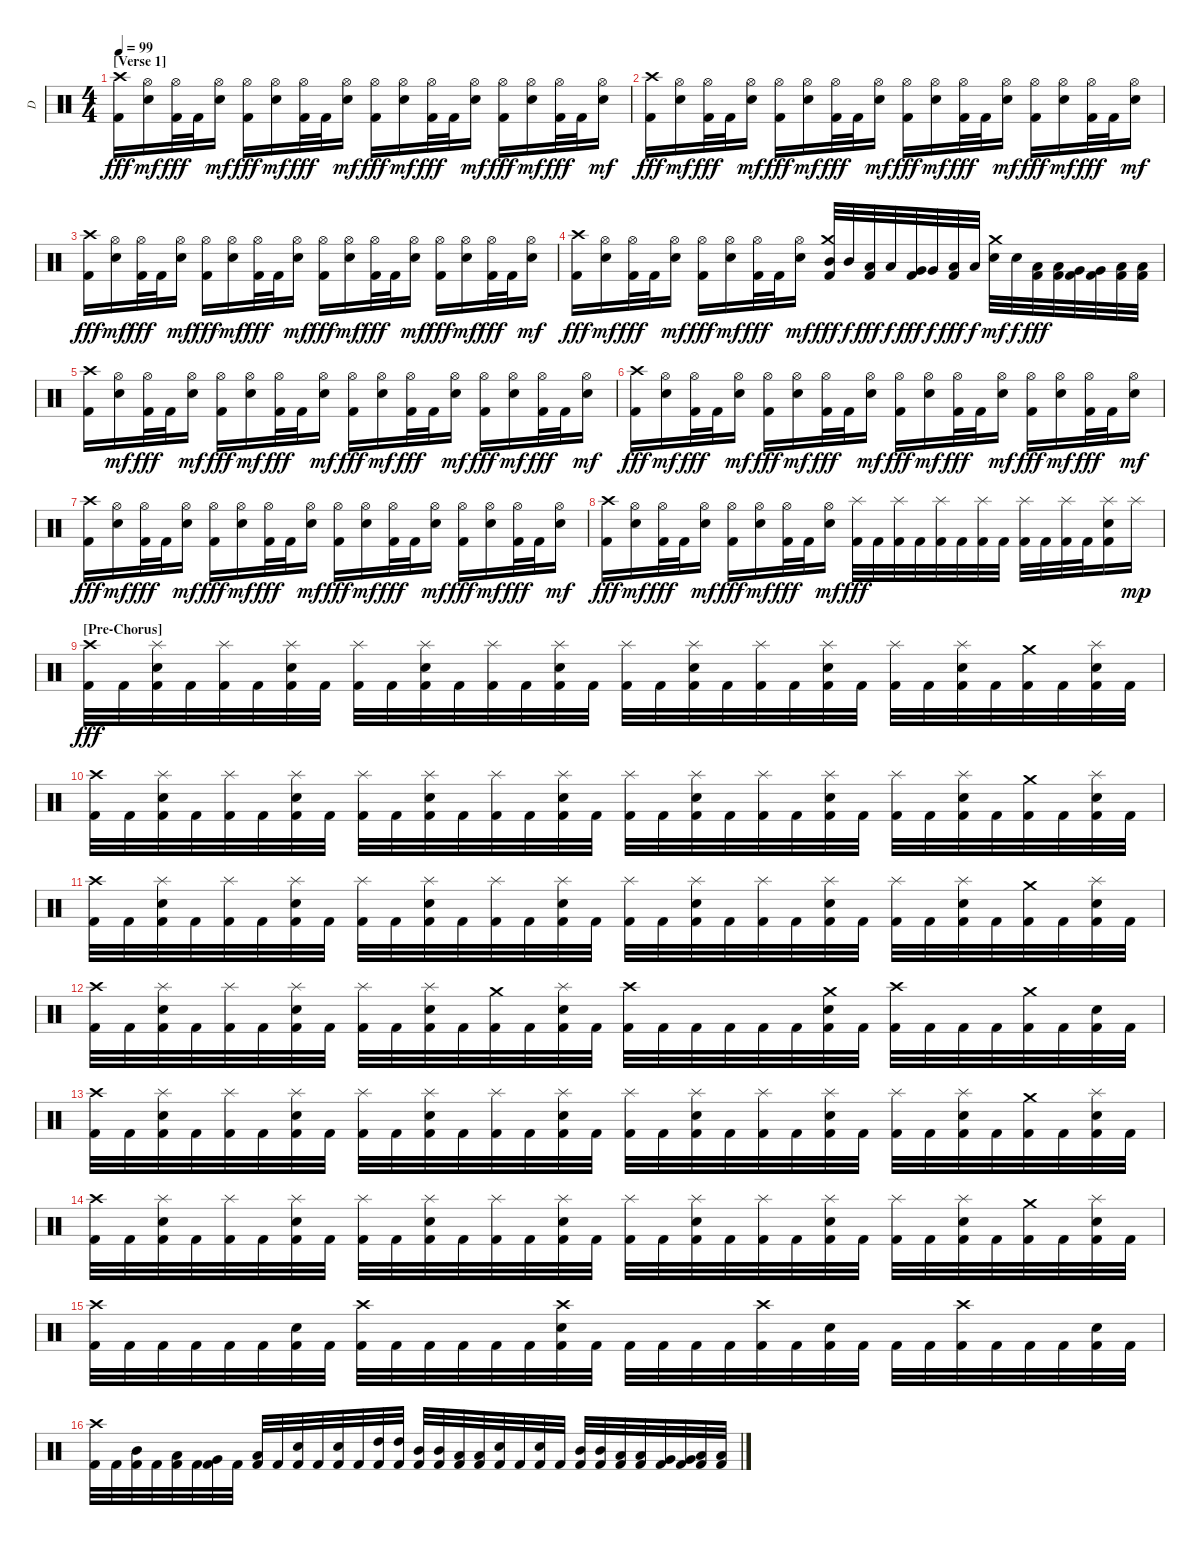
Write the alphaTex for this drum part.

\track ("D" "D") {instrument percussion}
\staff {score}
\articulation defaults
\ts (4 4)
\section ("" "[Verse 1]")
\tempo 99
\clef neutral
\ks c
("Crash high (hit)" "Kick (hit) 2").16{dy fff} ("Hi-Hat (open)" "Snare (hit) 2").16{dy mf} ("Hi-Hat (open)" "Kick (hit) 2").32{dy fff} "Kick (hit) 2".32 ("Hi-Hat (open)" "Snare (hit) 2").16{dy mf} ("Hi-Hat (open)" "Kick (hit) 2").16{dy fff} ("Hi-Hat (open)" "Snare (hit) 2").16{dy mf} ("Hi-Hat (open)" "Kick (hit) 2").32{dy fff} "Kick (hit) 2".32 ("Hi-Hat (open)" "Snare (hit) 2").16{dy mf} ("Hi-Hat (open)" "Kick (hit) 2").16{dy fff} ("Hi-Hat (open)" "Snare (hit) 2").16{dy mf} ("Hi-Hat (open)" "Kick (hit) 2").32{dy fff} "Kick (hit) 2".32 ("Hi-Hat (open)" "Snare (hit) 2").16{dy mf} ("Hi-Hat (open)" "Kick (hit) 2").16{dy fff} ("Hi-Hat (open)" "Snare (hit) 2").16{dy mf} ("Hi-Hat (open)" "Kick (hit) 2").32{dy fff} "Kick (hit) 2".32 ("Hi-Hat (open)" "Snare (hit) 2").16{dy mf} |
("Crash high (hit)" "Kick (hit) 2").16{dy fff} ("Hi-Hat (open)" "Snare (hit) 2").16{dy mf} ("Hi-Hat (open)" "Kick (hit) 2").32{dy fff} "Kick (hit) 2".32 ("Hi-Hat (open)" "Snare (hit) 2").16{dy mf} ("Hi-Hat (open)" "Kick (hit) 2").16{dy fff} ("Hi-Hat (open)" "Snare (hit) 2").16{dy mf} ("Hi-Hat (open)" "Kick (hit) 2").32{dy fff} "Kick (hit) 2".32 ("Hi-Hat (open)" "Snare (hit) 2").16{dy mf} ("Hi-Hat (open)" "Kick (hit) 2").16{dy fff} ("Hi-Hat (open)" "Snare (hit) 2").16{dy mf} ("Hi-Hat (open)" "Kick (hit) 2").32{dy fff} "Kick (hit) 2".32 ("Hi-Hat (open)" "Snare (hit) 2").16{dy mf} ("Hi-Hat (open)" "Kick (hit) 2").16{dy fff} ("Hi-Hat (open)" "Snare (hit) 2").16{dy mf} ("Hi-Hat (open)" "Kick (hit) 2").32{dy fff} "Kick (hit) 2".32 ("Hi-Hat (open)" "Snare (hit) 2").16{dy mf} |
("Crash high (hit)" "Kick (hit) 2").16{dy fff} ("Hi-Hat (open)" "Snare (hit) 2").16{dy mf} ("Hi-Hat (open)" "Kick (hit) 2").32{dy fff} "Kick (hit) 2".32 ("Hi-Hat (open)" "Snare (hit) 2").16{dy mf} ("Hi-Hat (open)" "Kick (hit) 2").16{dy fff} ("Hi-Hat (open)" "Snare (hit) 2").16{dy mf} ("Hi-Hat (open)" "Kick (hit) 2").32{dy fff} "Kick (hit) 2".32 ("Hi-Hat (open)" "Snare (hit) 2").16{dy mf} ("Hi-Hat (open)" "Kick (hit) 2").16{dy fff} ("Hi-Hat (open)" "Snare (hit) 2").16{dy mf} ("Hi-Hat (open)" "Kick (hit) 2").32{dy fff} "Kick (hit) 2".32 ("Hi-Hat (open)" "Snare (hit) 2").16{dy mf} ("Hi-Hat (open)" "Kick (hit) 2").16{dy fff} ("Hi-Hat (open)" "Snare (hit) 2").16{dy mf} ("Hi-Hat (open)" "Kick (hit) 2").32{dy fff} "Kick (hit) 2".32 ("Hi-Hat (open)" "Snare (hit) 2").16{dy mf} |
("Crash high (hit)" "Kick (hit) 2").16{dy fff} ("Hi-Hat (open)" "Snare (hit) 2").16{dy mf} ("Hi-Hat (open)" "Kick (hit) 2").32{dy fff} "Kick (hit) 2".32 ("Hi-Hat (open)" "Snare (hit) 2").16{dy mf} ("Hi-Hat (open)" "Kick (hit) 2").16{dy fff} ("Hi-Hat (open)" "Snare (hit) 2").16{dy mf} ("Hi-Hat (open)" "Kick (hit) 2").32{dy fff} "Kick (hit) 2".32 ("Hi-Hat (open)" "Snare (hit) 2").16{dy mf} ("Crash medium (hit)" "Mid Tom (hit)" "Kick (hit) 2").32{dy fff} "Mid Tom (hit)".32{dy f} ("Low Tom (hit)" "Kick (hit) 2").32{dy fff} "Low Tom (hit)".32{dy f} ("Very Low Tom (hit)" "Kick (hit) 2").32{dy fff} "Very Low Tom (hit)".32{dy f} ("Low Floor Tom (hit)" "Kick (hit) 2").32{dy fff} "Low Floor Tom (hit)".32{dy f} ("Crash medium (hit)" "Snare (hit) 2").32{dy mf} "Snare (hit) 2".32{dy f} ("Low Tom (hit)" "Kick (hit) 2").32{dy fff} ("Low Tom (hit)" "Kick (hit) 2").32 ("Very Low Tom (hit)" "Kick (hit) 2").32 ("Very Low Tom (hit)" "Kick (hit) 2").32 ("Low Floor Tom (hit)" "Kick (hit) 2").32 ("Low Floor Tom (hit)" "Kick (hit) 2").32 |
("Crash high (hit)" "Kick (hit) 2").16 ("Hi-Hat (open)" "Snare (hit) 2").16{dy mf} ("Hi-Hat (open)" "Kick (hit) 2").32{dy fff} "Kick (hit) 2".32 ("Hi-Hat (open)" "Snare (hit) 2").16{dy mf} ("Hi-Hat (open)" "Kick (hit) 2").16{dy fff} ("Hi-Hat (open)" "Snare (hit) 2").16{dy mf} ("Hi-Hat (open)" "Kick (hit) 2").32{dy fff} "Kick (hit) 2".32 ("Hi-Hat (open)" "Snare (hit) 2").16{dy mf} ("Hi-Hat (open)" "Kick (hit) 2").16{dy fff} ("Hi-Hat (open)" "Snare (hit) 2").16{dy mf} ("Hi-Hat (open)" "Kick (hit) 2").32{dy fff} "Kick (hit) 2".32 ("Hi-Hat (open)" "Snare (hit) 2").16{dy mf} ("Hi-Hat (open)" "Kick (hit) 2").16{dy fff} ("Hi-Hat (open)" "Snare (hit) 2").16{dy mf} ("Hi-Hat (open)" "Kick (hit) 2").32{dy fff} "Kick (hit) 2".32 ("Hi-Hat (open)" "Snare (hit) 2").16{dy mf} |
("Crash high (hit)" "Kick (hit) 2").16{dy fff} ("Hi-Hat (open)" "Snare (hit) 2").16{dy mf} ("Hi-Hat (open)" "Kick (hit) 2").32{dy fff} "Kick (hit) 2".32 ("Hi-Hat (open)" "Snare (hit) 2").16{dy mf} ("Hi-Hat (open)" "Kick (hit) 2").16{dy fff} ("Hi-Hat (open)" "Snare (hit) 2").16{dy mf} ("Hi-Hat (open)" "Kick (hit) 2").32{dy fff} "Kick (hit) 2".32 ("Hi-Hat (open)" "Snare (hit) 2").16{dy mf} ("Hi-Hat (open)" "Kick (hit) 2").16{dy fff} ("Hi-Hat (open)" "Snare (hit) 2").16{dy mf} ("Hi-Hat (open)" "Kick (hit) 2").32{dy fff} "Kick (hit) 2".32 ("Hi-Hat (open)" "Snare (hit) 2").16{dy mf} ("Hi-Hat (open)" "Kick (hit) 2").16{dy fff} ("Hi-Hat (open)" "Snare (hit) 2").16{dy mf} ("Hi-Hat (open)" "Kick (hit) 2").32{dy fff} "Kick (hit) 2".32 ("Hi-Hat (open)" "Snare (hit) 2").16{dy mf} |
("Crash high (hit)" "Kick (hit) 2").16{dy fff} ("Hi-Hat (open)" "Snare (hit) 2").16{dy mf} ("Hi-Hat (open)" "Kick (hit) 2").32{dy fff} "Kick (hit) 2".32 ("Hi-Hat (open)" "Snare (hit) 2").16{dy mf} ("Hi-Hat (open)" "Kick (hit) 2").16{dy fff} ("Hi-Hat (open)" "Snare (hit) 2").16{dy mf} ("Hi-Hat (open)" "Kick (hit) 2").32{dy fff} "Kick (hit) 2".32 ("Hi-Hat (open)" "Snare (hit) 2").16{dy mf} ("Hi-Hat (open)" "Kick (hit) 2").16{dy fff} ("Hi-Hat (open)" "Snare (hit) 2").16{dy mf} ("Hi-Hat (open)" "Kick (hit) 2").32{dy fff} "Kick (hit) 2".32 ("Hi-Hat (open)" "Snare (hit) 2").16{dy mf} ("Hi-Hat (open)" "Kick (hit) 2").16{dy fff} ("Hi-Hat (open)" "Snare (hit) 2").16{dy mf} ("Hi-Hat (open)" "Kick (hit) 2").32{dy fff} "Kick (hit) 2".32 ("Hi-Hat (open)" "Snare (hit) 2").16{dy mf} |
("Crash high (hit)" "Kick (hit) 2").16{dy fff} ("Hi-Hat (open)" "Snare (hit) 2").16{dy mf} ("Hi-Hat (open)" "Kick (hit) 2").32{dy fff} "Kick (hit) 2".32 ("Hi-Hat (open)" "Snare (hit) 2").16{dy mf} ("Hi-Hat (open)" "Kick (hit) 2").16{dy fff} ("Hi-Hat (open)" "Snare (hit) 2").16{dy mf} ("Hi-Hat (open)" "Kick (hit) 2").32{dy fff} "Kick (hit) 2".32 ("Hi-Hat (open)" "Snare (hit) 2").16{dy mf} ("Splash (hit)" "Kick (hit) 2").32{dy fff} "Kick (hit) 2".32 ("Splash (hit)" "Kick (hit) 2").32 "Kick (hit) 2".32 ("Splash (hit)" "Kick (hit) 2").32 "Kick (hit) 2".32 ("Splash (hit)" "Kick (hit) 2").32 "Kick (hit) 2".32 ("Splash (hit)" "Kick (hit) 2").32 "Kick (hit) 2".32 ("Splash (hit)" "Kick (hit) 2").32 "Kick (hit) 2".32 ("Splash (hit)" "Snare (hit) 2" "Kick (hit) 2").16 "Splash (hit)".16{dy mp} |
\section ("" "[Pre-Chorus]")
("Crash high (hit)" "Kick (hit) 2").32{dy fff} "Kick (hit) 2".32 ("Splash (hit)" "Snare (hit) 2" "Kick (hit) 2").32 "Kick (hit) 2".32 ("Splash (hit)" "Kick (hit) 2").32 "Kick (hit) 2".32 ("Splash (hit)" "Snare (hit) 2" "Kick (hit) 2").32 "Kick (hit) 2".32 ("Splash (hit)" "Kick (hit) 2").32 "Kick (hit) 2".32 ("Splash (hit)" "Snare (hit) 2" "Kick (hit) 2").32 "Kick (hit) 2".32 ("Splash (hit)" "Kick (hit) 2").32 "Kick (hit) 2".32 ("Splash (hit)" "Snare (hit) 2" "Kick (hit) 2").32 "Kick (hit) 2".32 ("Splash (hit)" "Kick (hit) 2").32 "Kick (hit) 2".32 ("Splash (hit)" "Snare (hit) 2" "Kick (hit) 2").32 "Kick (hit) 2".32 ("Splash (hit)" "Kick (hit) 2").32 "Kick (hit) 2".32 ("Splash (hit)" "Snare (hit) 2" "Kick (hit) 2").32 "Kick (hit) 2".32 ("Splash (hit)" "Kick (hit) 2").32 "Kick (hit) 2".32 ("Splash (hit)" "Snare (hit) 2" "Kick (hit) 2").32 "Kick (hit) 2".32 ("Crash medium (hit)" "Kick (hit) 2").32 "Kick (hit) 2".32 ("Splash (hit)" "Snare (hit) 2" "Kick (hit) 2").32 "Kick (hit) 2".32 |
("Crash high (hit)" "Kick (hit) 2").32 "Kick (hit) 2".32 ("Splash (hit)" "Snare (hit) 2" "Kick (hit) 2").32 "Kick (hit) 2".32 ("Splash (hit)" "Kick (hit) 2").32 "Kick (hit) 2".32 ("Splash (hit)" "Snare (hit) 2" "Kick (hit) 2").32 "Kick (hit) 2".32 ("Splash (hit)" "Kick (hit) 2").32 "Kick (hit) 2".32 ("Splash (hit)" "Snare (hit) 2" "Kick (hit) 2").32 "Kick (hit) 2".32 ("Splash (hit)" "Kick (hit) 2").32 "Kick (hit) 2".32 ("Splash (hit)" "Snare (hit) 2" "Kick (hit) 2").32 "Kick (hit) 2".32 ("Splash (hit)" "Kick (hit) 2").32 "Kick (hit) 2".32 ("Splash (hit)" "Snare (hit) 2" "Kick (hit) 2").32 "Kick (hit) 2".32 ("Splash (hit)" "Kick (hit) 2").32 "Kick (hit) 2".32 ("Splash (hit)" "Snare (hit) 2" "Kick (hit) 2").32 "Kick (hit) 2".32 ("Splash (hit)" "Kick (hit) 2").32 "Kick (hit) 2".32 ("Splash (hit)" "Snare (hit) 2" "Kick (hit) 2").32 "Kick (hit) 2".32 ("Crash medium (hit)" "Kick (hit) 2").32 "Kick (hit) 2".32 ("Splash (hit)" "Snare (hit) 2" "Kick (hit) 2").32 "Kick (hit) 2".32 |
("Crash high (hit)" "Kick (hit) 2").32 "Kick (hit) 2".32 ("Splash (hit)" "Snare (hit) 2" "Kick (hit) 2").32 "Kick (hit) 2".32 ("Splash (hit)" "Kick (hit) 2").32 "Kick (hit) 2".32 ("Splash (hit)" "Snare (hit) 2" "Kick (hit) 2").32 "Kick (hit) 2".32 ("Splash (hit)" "Kick (hit) 2").32 "Kick (hit) 2".32 ("Splash (hit)" "Snare (hit) 2" "Kick (hit) 2").32 "Kick (hit) 2".32 ("Splash (hit)" "Kick (hit) 2").32 "Kick (hit) 2".32 ("Splash (hit)" "Snare (hit) 2" "Kick (hit) 2").32 "Kick (hit) 2".32 ("Splash (hit)" "Kick (hit) 2").32 "Kick (hit) 2".32 ("Splash (hit)" "Snare (hit) 2" "Kick (hit) 2").32 "Kick (hit) 2".32 ("Splash (hit)" "Kick (hit) 2").32 "Kick (hit) 2".32 ("Splash (hit)" "Snare (hit) 2" "Kick (hit) 2").32 "Kick (hit) 2".32 ("Splash (hit)" "Kick (hit) 2").32 "Kick (hit) 2".32 ("Splash (hit)" "Snare (hit) 2" "Kick (hit) 2").32 "Kick (hit) 2".32 ("Crash medium (hit)" "Kick (hit) 2").32 "Kick (hit) 2".32 ("Splash (hit)" "Snare (hit) 2" "Kick (hit) 2").32 "Kick (hit) 2".32 |
("Crash high (hit)" "Kick (hit) 2").32 "Kick (hit) 2".32 ("Splash (hit)" "Snare (hit) 2" "Kick (hit) 2").32 "Kick (hit) 2".32 ("Splash (hit)" "Kick (hit) 2").32 "Kick (hit) 2".32 ("Splash (hit)" "Snare (hit) 2" "Kick (hit) 2").32 "Kick (hit) 2".32 ("Splash (hit)" "Kick (hit) 2").32 "Kick (hit) 2".32 ("Splash (hit)" "Snare (hit) 2" "Kick (hit) 2").32 "Kick (hit) 2".32 ("Crash medium (hit)" "Kick (hit) 2").32 "Kick (hit) 2".32 ("Splash (hit)" "Snare (hit) 2" "Kick (hit) 2").32 "Kick (hit) 2".32 ("Crash high (hit)" "Kick (hit) 2").32 "Kick (hit) 2".32 "Kick (hit) 2".32 "Kick (hit) 2".32 "Kick (hit) 2".32 "Kick (hit) 2".32 ("Crash medium (hit)" "Snare (hit) 2" "Kick (hit) 2").32 "Kick (hit) 2".32 ("Crash high (hit)" "Kick (hit) 2").32 "Kick (hit) 2".32 "Kick (hit) 2".32 "Kick (hit) 2".32 ("Crash medium (hit)" "Kick (hit) 2").32 "Kick (hit) 2".32 ("Snare (hit) 2" "Kick (hit) 2").32 "Kick (hit) 2".32 |
("Crash high (hit)" "Kick (hit) 2").32 "Kick (hit) 2".32 ("Splash (hit)" "Snare (hit) 2" "Kick (hit) 2").32 "Kick (hit) 2".32 ("Splash (hit)" "Kick (hit) 2").32 "Kick (hit) 2".32 ("Splash (hit)" "Snare (hit) 2" "Kick (hit) 2").32 "Kick (hit) 2".32 ("Splash (hit)" "Kick (hit) 2").32 "Kick (hit) 2".32 ("Splash (hit)" "Snare (hit) 2" "Kick (hit) 2").32 "Kick (hit) 2".32 ("Splash (hit)" "Kick (hit) 2").32 "Kick (hit) 2".32 ("Splash (hit)" "Snare (hit) 2" "Kick (hit) 2").32 "Kick (hit) 2".32 ("Splash (hit)" "Kick (hit) 2").32 "Kick (hit) 2".32 ("Splash (hit)" "Snare (hit) 2" "Kick (hit) 2").32 "Kick (hit) 2".32 ("Splash (hit)" "Kick (hit) 2").32 "Kick (hit) 2".32 ("Splash (hit)" "Snare (hit) 2" "Kick (hit) 2").32 "Kick (hit) 2".32 ("Splash (hit)" "Kick (hit) 2").32 "Kick (hit) 2".32 ("Splash (hit)" "Snare (hit) 2" "Kick (hit) 2").32 "Kick (hit) 2".32 ("Crash medium (hit)" "Kick (hit) 2").32 "Kick (hit) 2".32 ("Splash (hit)" "Snare (hit) 2" "Kick (hit) 2").32 "Kick (hit) 2".32 |
("Crash high (hit)" "Kick (hit) 2").32 "Kick (hit) 2".32 ("Splash (hit)" "Snare (hit) 2" "Kick (hit) 2").32 "Kick (hit) 2".32 ("Splash (hit)" "Kick (hit) 2").32 "Kick (hit) 2".32 ("Splash (hit)" "Snare (hit) 2" "Kick (hit) 2").32 "Kick (hit) 2".32 ("Splash (hit)" "Kick (hit) 2").32 "Kick (hit) 2".32 ("Splash (hit)" "Snare (hit) 2" "Kick (hit) 2").32 "Kick (hit) 2".32 ("Splash (hit)" "Kick (hit) 2").32 "Kick (hit) 2".32 ("Splash (hit)" "Snare (hit) 2" "Kick (hit) 2").32 "Kick (hit) 2".32 ("Splash (hit)" "Kick (hit) 2").32 "Kick (hit) 2".32 ("Splash (hit)" "Snare (hit) 2" "Kick (hit) 2").32 "Kick (hit) 2".32 ("Splash (hit)" "Kick (hit) 2").32 "Kick (hit) 2".32 ("Splash (hit)" "Snare (hit) 2" "Kick (hit) 2").32 "Kick (hit) 2".32 ("Splash (hit)" "Kick (hit) 2").32 "Kick (hit) 2".32 ("Splash (hit)" "Snare (hit) 2" "Kick (hit) 2").32 "Kick (hit) 2".32 ("Crash medium (hit)" "Kick (hit) 2").32 "Kick (hit) 2".32 ("Splash (hit)" "Snare (hit) 2" "Kick (hit) 2").32 "Kick (hit) 2".32 |
("Crash high (hit)" "Kick (hit) 2").32 "Kick (hit) 2".32 "Kick (hit) 2".32 "Kick (hit) 2".32 "Kick (hit) 2".32 "Kick (hit) 2".32 ("Snare (hit) 2" "Kick (hit) 2").32 "Kick (hit) 2".32 ("Crash high (hit)" "Kick (hit) 2").32 "Kick (hit) 2".32 "Kick (hit) 2".32 "Kick (hit) 2".32 "Kick (hit) 2".32 "Kick (hit) 2".32 ("Crash high (hit)" "Snare (hit) 2" "Kick (hit) 2").32 "Kick (hit) 2".32 "Kick (hit) 2".32 "Kick (hit) 2".32 "Kick (hit) 2".32 "Kick (hit) 2".32 ("Crash high (hit)" "Kick (hit) 2").32 "Kick (hit) 2".32 ("Snare (hit) 2" "Kick (hit) 2").32 "Kick (hit) 2".32 "Kick (hit) 2".32 "Kick (hit) 2".32 ("Crash high (hit)" "Kick (hit) 2").32 "Kick (hit) 2".32 "Kick (hit) 2".32 "Kick (hit) 2".32 ("Snare (hit) 2" "Kick (hit) 2").32 "Kick (hit) 2".32 |
("Crash high (hit)" "Kick (hit) 2").32 "Kick (hit) 2".32 ("Mid Tom (hit)" "Kick (hit) 2").32 "Kick (hit) 2".32 ("Low Tom (hit)" "Kick (hit) 2").32 "Kick (hit) 2".32 ("Very Low Tom (hit)" "Kick (hit) 2").32 "Kick (hit) 2".32 ("Low Floor Tom (hit)" "Kick (hit) 2").32 "Kick (hit) 2".32 ("Snare (hit) 2" "Kick (hit) 2").32 "Kick (hit) 2".32 ("Snare (hit) 2" "Kick (hit) 2").32 "Kick (hit) 2".32 ("High Tom (hit)" "Kick (hit) 2").32 ("High Tom (hit)" "Kick (hit) 2").32 ("Mid Tom (hit)" "Kick (hit) 2").32 ("Mid Tom (hit)" "Kick (hit) 2").32 ("Low Tom (hit)" "Kick (hit) 2").32 ("Low Tom (hit)" "Kick (hit) 2").32 ("Snare (hit) 2" "Kick (hit) 2").32 "Kick (hit) 2".32 ("Snare (hit) 2" "Kick (hit) 2").32 "Kick (hit) 2".32 ("Mid Tom (hit)" "Kick (hit) 2").32 ("Mid Tom (hit)" "Kick (hit) 2").32 ("Low Tom (hit)" "Kick (hit) 2").32 ("Low Tom (hit)" "Kick (hit) 2").32 ("Very Low Tom (hit)" "Kick (hit) 2").32 ("Very Low Tom (hit)" "Kick (hit) 2").32 ("Low Floor Tom (hit)" "Kick (hit) 2").32 ("Low Floor Tom (hit)" "Kick (hit) 2").32
